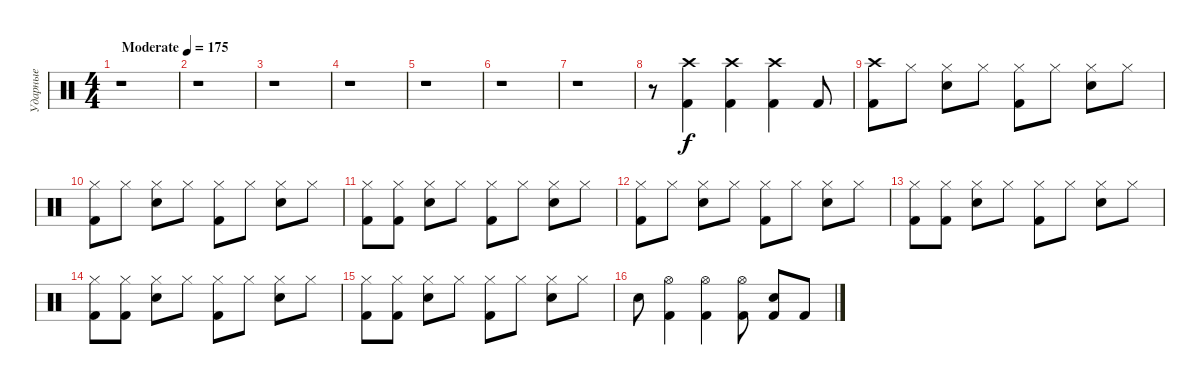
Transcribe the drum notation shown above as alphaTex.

\track ("Ударные" "Ударные") {instrument percussion}
\staff
\articulation defaults
\ts (4 4)
\tempo (175 "Moderate")
\clef neutral
\ks c
r.1{dy f} |
r.1 |
r.1 |
r.1 |
r.1 |
r.1 |
r.1 |
r.8 ("Kick (hit) 2" "Crash high (hit)").4 ("Kick (hit) 2" "Crash high (hit)").4 ("Kick (hit) 2" "Crash high (hit)").4 "Kick (hit) 2".8 |
("Kick (hit) 2" "Crash high (hit)").8 "Hi-Hat (closed)".8 ("Snare (hit) 2" "Hi-Hat (closed)").8 "Hi-Hat (closed)".8 ("Kick (hit) 2" "Hi-Hat (closed)").8 "Hi-Hat (closed)".8 ("Snare (hit) 2" "Hi-Hat (closed)").8 "Hi-Hat (closed)".8 |
("Kick (hit) 2" "Hi-Hat (closed)").8 "Hi-Hat (closed)".8 ("Snare (hit) 2" "Hi-Hat (closed)").8 "Hi-Hat (closed)".8 ("Kick (hit) 2" "Hi-Hat (closed)").8 "Hi-Hat (closed)".8 ("Snare (hit) 2" "Hi-Hat (closed)").8 "Hi-Hat (closed)".8 |
("Kick (hit) 2" "Hi-Hat (closed)").8 ("Kick (hit) 2" "Hi-Hat (closed)").8 ("Snare (hit) 2" "Hi-Hat (closed)").8 "Hi-Hat (closed)".8 ("Kick (hit) 2" "Hi-Hat (closed)").8 "Hi-Hat (closed)".8 ("Snare (hit) 2" "Hi-Hat (closed)").8 "Hi-Hat (closed)".8 |
("Kick (hit) 2" "Hi-Hat (closed)").8 "Hi-Hat (closed)".8 ("Snare (hit) 2" "Hi-Hat (closed)").8 "Hi-Hat (closed)".8 ("Kick (hit) 2" "Hi-Hat (closed)").8 "Hi-Hat (closed)".8 ("Snare (hit) 2" "Hi-Hat (closed)").8 "Hi-Hat (closed)".8 |
("Kick (hit) 2" "Hi-Hat (closed)").8 ("Kick (hit) 2" "Hi-Hat (closed)").8 ("Snare (hit) 2" "Hi-Hat (closed)").8 "Hi-Hat (closed)".8 ("Kick (hit) 2" "Hi-Hat (closed)").8 "Hi-Hat (closed)".8 ("Snare (hit) 2" "Hi-Hat (closed)").8 "Hi-Hat (closed)".8 |
("Kick (hit) 2" "Hi-Hat (closed)").8 ("Kick (hit) 2" "Hi-Hat (closed)").8 ("Snare (hit) 2" "Hi-Hat (closed)").8 "Hi-Hat (closed)".8 ("Kick (hit) 2" "Hi-Hat (closed)").8 "Hi-Hat (closed)".8 ("Snare (hit) 2" "Hi-Hat (closed)").8 "Hi-Hat (closed)".8 |
("Kick (hit) 2" "Hi-Hat (closed)").8 ("Kick (hit) 2" "Hi-Hat (closed)").8 ("Snare (hit) 2" "Hi-Hat (closed)").8 "Hi-Hat (closed)".8 ("Kick (hit) 2" "Hi-Hat (closed)").8 "Hi-Hat (closed)".8 ("Snare (hit) 2" "Hi-Hat (closed)").8 "Hi-Hat (closed)".8 |
"Electric Snare (hit)".8 ("Kick (hit) 2" "Hi-Hat (open)").4 ("Kick (hit) 2" "Hi-Hat (open)").4 ("Kick (hit) 2" "Hi-Hat (open)").8 ("Kick (hit) 2" "Electric Snare (hit)").8 "Kick (hit) 2".8
